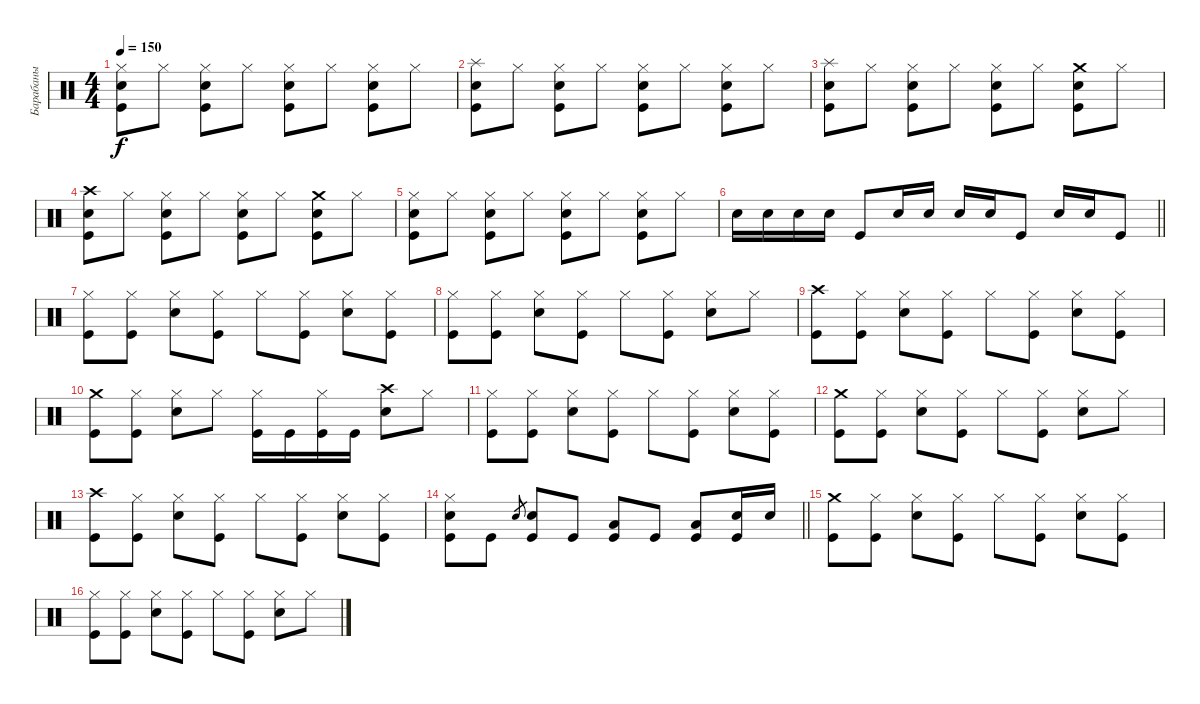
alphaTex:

\track ("Барабаны" "Барабаны") {instrument percussion}
\staff {score}
\articulation defaults
\ts (4 4)
\tempo 150
\clef neutral
\ks c
("Hi-Hat (closed)" "Electric Snare (hit)" "Kick (hit)").8{dy f} "Hi-Hat (closed)".8 ("Hi-Hat (closed)" "Electric Snare (hit)" "Kick (hit)").8 "Hi-Hat (closed)".8 ("Hi-Hat (closed)" "Electric Snare (hit)" "Kick (hit)").8 "Hi-Hat (closed)".8 ("Hi-Hat (closed)" "Electric Snare (hit)" "Kick (hit)").8 "Hi-Hat (closed)".8 |
("Splash (hit)" "Electric Snare (hit)" "Kick (hit)").8 "Hi-Hat (closed)".8 ("Hi-Hat (closed)" "Electric Snare (hit)" "Kick (hit)").8 "Hi-Hat (closed)".8 ("Hi-Hat (closed)" "Electric Snare (hit)" "Kick (hit)").8 "Hi-Hat (closed)".8 ("Hi-Hat (closed)" "Electric Snare (hit)" "Kick (hit)").8 "Hi-Hat (closed)".8 |
("Splash (hit)" "Electric Snare (hit)" "Kick (hit)").8 "Hi-Hat (closed)".8 ("Hi-Hat (closed)" "Electric Snare (hit)" "Kick (hit)").8 "Hi-Hat (closed)".8 ("Hi-Hat (closed)" "Electric Snare (hit)" "Kick (hit)").8 "Hi-Hat (closed)".8 ("Crash medium (hit)" "Electric Snare (hit)" "Kick (hit)").8 "Hi-Hat (closed)".8 |
("Crash high (hit)" "Electric Snare (hit)" "Kick (hit)").8 "Hi-Hat (closed)".8 ("Hi-Hat (closed)" "Electric Snare (hit)" "Kick (hit)").8 "Hi-Hat (closed)".8 ("Hi-Hat (closed)" "Electric Snare (hit)" "Kick (hit)").8 "Hi-Hat (closed)".8 ("Crash medium (hit)" "Electric Snare (hit)" "Kick (hit)").8 "Hi-Hat (closed)".8 |
("Hi-Hat (closed)" "Electric Snare (hit)" "Kick (hit)").8 "Hi-Hat (closed)".8 ("Hi-Hat (closed)" "Electric Snare (hit)" "Kick (hit)").8 "Hi-Hat (closed)".8 ("Hi-Hat (closed)" "Electric Snare (hit)" "Kick (hit)").8 "Hi-Hat (closed)".8 ("Hi-Hat (closed)" "Electric Snare (hit)" "Kick (hit)").8 "Hi-Hat (closed)".8 |
\barLineRight lightlight "Snare (hit) 2".16 "Snare (hit) 2".16 "Snare (hit) 2".16 "Snare (hit) 2".16 "Kick (hit)".8 "Snare (hit) 2".16 "Snare (hit) 2".16 "Snare (hit) 2".16 "Snare (hit) 2".16 "Kick (hit)".8 "Snare (hit) 2".16 "Snare (hit) 2".16 "Kick (hit)".8
|
("Hi-Hat (closed)" "Kick (hit)").8 ("Hi-Hat (closed)" "Kick (hit)").8 ("Hi-Hat (closed)" "Electric Snare (hit)").8 ("Hi-Hat (closed)" "Kick (hit)").8 "Hi-Hat (closed)".8 ("Hi-Hat (closed)" "Kick (hit)").8 ("Hi-Hat (closed)" "Electric Snare (hit)").8 ("Hi-Hat (closed)" "Kick (hit)").8 |
("Hi-Hat (closed)" "Kick (hit)").8 ("Hi-Hat (closed)" "Kick (hit)").8 ("Hi-Hat (closed)" "Electric Snare (hit)").8 ("Hi-Hat (closed)" "Kick (hit)").8 "Hi-Hat (closed)".8 ("Hi-Hat (closed)" "Kick (hit)").8 ("Hi-Hat (closed)" "Electric Snare (hit)").8 "Hi-Hat (closed)".8 |
("Crash high (hit)" "Kick (hit)").8 ("Hi-Hat (closed)" "Kick (hit)").8 ("Hi-Hat (closed)" "Electric Snare (hit)").8 ("Hi-Hat (closed)" "Kick (hit)").8 "Hi-Hat (closed)".8 ("Hi-Hat (closed)" "Kick (hit)").8 ("Hi-Hat (closed)" "Electric Snare (hit)").8 ("Hi-Hat (closed)" "Kick (hit)").8 |
("Crash medium (hit)" "Kick (hit)").8 ("Hi-Hat (closed)" "Kick (hit)").8 ("Hi-Hat (closed)" "Electric Snare (hit)").8 "Hi-Hat (closed)".8 ("Hi-Hat (closed)" "Kick (hit)").16 "Kick (hit)".16 ("Hi-Hat (closed)" "Kick (hit)").16 "Kick (hit)".16 ("Crash high (hit)" "Electric Snare (hit)").8 "Hi-Hat (closed)".8 |
("Hi-Hat (closed)" "Kick (hit)").8 ("Hi-Hat (closed)" "Kick (hit)").8 ("Hi-Hat (closed)" "Electric Snare (hit)").8 ("Hi-Hat (closed)" "Kick (hit)").8 "Hi-Hat (closed)".8 ("Hi-Hat (closed)" "Kick (hit)").8 ("Hi-Hat (closed)" "Electric Snare (hit)").8 ("Hi-Hat (closed)" "Kick (hit)").8 |
("Crash medium (hit)" "Kick (hit)").8 ("Hi-Hat (closed)" "Kick (hit)").8 ("Hi-Hat (closed)" "Electric Snare (hit)").8 ("Hi-Hat (closed)" "Kick (hit)").8 "Hi-Hat (closed)".8 ("Hi-Hat (closed)" "Kick (hit)").8 ("Hi-Hat (closed)" "Electric Snare (hit)").8 "Hi-Hat (closed)".8 |
("Crash high (hit)" "Kick (hit)").8 ("Hi-Hat (closed)" "Kick (hit)").8 ("Hi-Hat (closed)" "Electric Snare (hit)").8 ("Hi-Hat (closed)" "Kick (hit)").8 "Hi-Hat (closed)".8 ("Hi-Hat (closed)" "Kick (hit)").8 ("Hi-Hat (closed)" "Electric Snare (hit)").8 ("Hi-Hat (closed)" "Kick (hit)").8 |
\barLineRight lightlight
("Hi-Hat (closed)" "Electric Snare (hit)" "Kick (hit)").8 "Kick (hit)".8 "Snare (hit) 2"{h}.8{gr} ("Snare (hit) 2" "Kick (hit)").8 "Kick (hit)".8 ("Low Tom (hit)" "Kick (hit)").8 "Kick (hit)".8 ("Low Tom (hit)" "Kick (hit)").8 ("Snare (hit) 2" "Kick (hit)").16 "Snare (hit) 2".16 |
("Crash medium (hit)" "Kick (hit)").8 ("Hi-Hat (closed)" "Kick (hit)").8 ("Hi-Hat (closed)" "Electric Snare (hit)").8 ("Hi-Hat (closed)" "Kick (hit)").8 "Hi-Hat (closed)".8 ("Hi-Hat (closed)" "Kick (hit)").8 ("Hi-Hat (closed)" "Electric Snare (hit)").8 ("Hi-Hat (closed)" "Kick (hit)").8 |
("Hi-Hat (closed)" "Kick (hit)").8 ("Hi-Hat (closed)" "Kick (hit)").8 ("Hi-Hat (closed)" "Electric Snare (hit)").8 ("Hi-Hat (closed)" "Kick (hit)").8 "Hi-Hat (closed)".8 ("Hi-Hat (closed)" "Kick (hit)").8 ("Hi-Hat (closed)" "Electric Snare (hit)").8 "Hi-Hat (closed)".8
